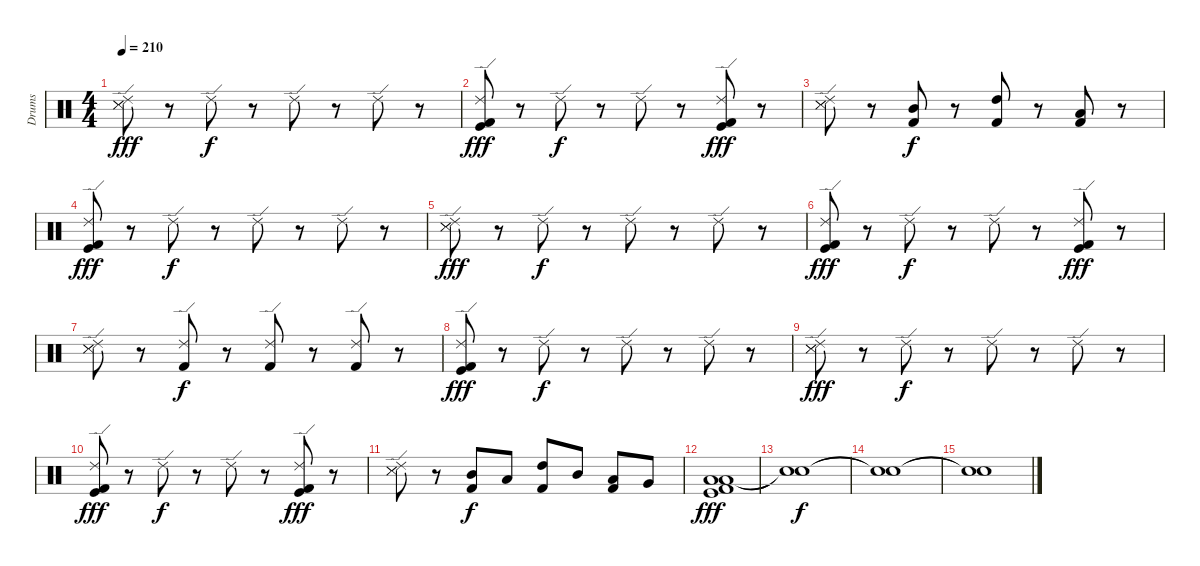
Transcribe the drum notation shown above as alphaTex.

\track ("Drums" "Drums") {instrument percussion}
\staff {score}
\articulation defaults
\ts (4 4)
\tempo 210
\clef neutral
\ks c
("Ride (edge) 2" "Snare (side stick) 3" "Snare (side stick) 3").8{dy fff} r.8 "Ride (edge) 2".8{dy f} r.8 "Ride (edge) 2".8 r.8 "Ride (edge) 2".8 r.8 |
("Ride (edge) 2" "Kick (hit)" "Kick (hit) 2").8{dy fff} r.8 "Ride (edge) 2".8{dy f} r.8 "Ride (edge) 2".8 r.8 ("Ride (edge) 2" "Kick (hit)" "Kick (hit) 2").8{dy fff} r.8 |
("Ride (edge) 2" "Snare (side stick) 3" "Snare (side stick) 3").8 r.8 ("Mid Tom (hit)" "Kick (hit) 2").8{dy f} r.8 ("High Tom (hit)" "Kick (hit) 2").8 r.8 ("Low Tom (hit)" "Kick (hit) 2").8 r.8 |
("Ride (edge) 2" "Kick (hit)" "Kick (hit) 2").8{dy fff} r.8 "Ride (edge) 2".8{dy f} r.8 "Ride (edge) 2".8 r.8 "Ride (edge) 2".8 r.8 |
("Ride (edge) 2" "Snare (side stick) 3" "Snare (side stick) 3").8{dy fff} r.8 "Ride (edge) 2".8{dy f} r.8 "Ride (edge) 2".8 r.8 "Ride (edge) 2".8 r.8 |
("Ride (edge) 2" "Kick (hit)" "Kick (hit) 2").8{dy fff} r.8 "Ride (edge) 2".8{dy f} r.8 "Ride (edge) 2".8 r.8 ("Ride (edge) 2" "Kick (hit)" "Kick (hit) 2").8{dy fff} r.8 |
("Ride (edge) 2" "Snare (side stick) 3" "Snare (side stick) 3").8 r.8 ("Ride (edge) 2" "Kick (hit) 2").8{dy f} r.8 ("Ride (edge) 2" "Kick (hit) 2").8 r.8 ("Ride (edge) 2" "Kick (hit) 2").8 r.8 |
("Ride (edge) 2" "Kick (hit)" "Kick (hit) 2").8{dy fff} r.8 "Ride (edge) 2".8{dy f} r.8 "Ride (edge) 2".8 r.8 "Ride (edge) 2".8 r.8 |
("Ride (edge) 2" "Snare (side stick) 3" "Snare (side stick) 3").8{dy fff} r.8 "Ride (edge) 2".8{dy f} r.8 "Ride (edge) 2".8 r.8 "Ride (edge) 2".8 r.8 |
("Ride (edge) 2" "Kick (hit)" "Kick (hit) 2").8{dy fff} r.8 "Ride (edge) 2".8{dy f} r.8 "Ride (edge) 2".8 r.8 ("Ride (edge) 2" "Kick (hit)" "Kick (hit) 2").8{dy fff} r.8 |
("Ride (edge) 2" "Snare (side stick) 3" "Snare (side stick) 3").8 r.8 ("Mid Tom (hit)" "Kick (hit) 2").8{dy f} "Low Tom (hit)".8 ("High Tom (hit)" "Kick (hit) 2").8 "Mid Tom (hit)".8 ("Low Tom (hit)" "Kick (hit) 2").8 "Very Low Tom (hit)".8 |
("Low Floor Tom (hit)" "Low Floor Tom (hit)" "Kick (hit)" "Kick (hit) 2").1{dy fff} |
("Snare (hit)"{t} "Snare (hit)"{t}).1{dy f} |
("Snare (hit)"{t} "Snare (hit)"{t}).1 |
("Snare (hit)"{t} "Snare (hit)"{t}).1
